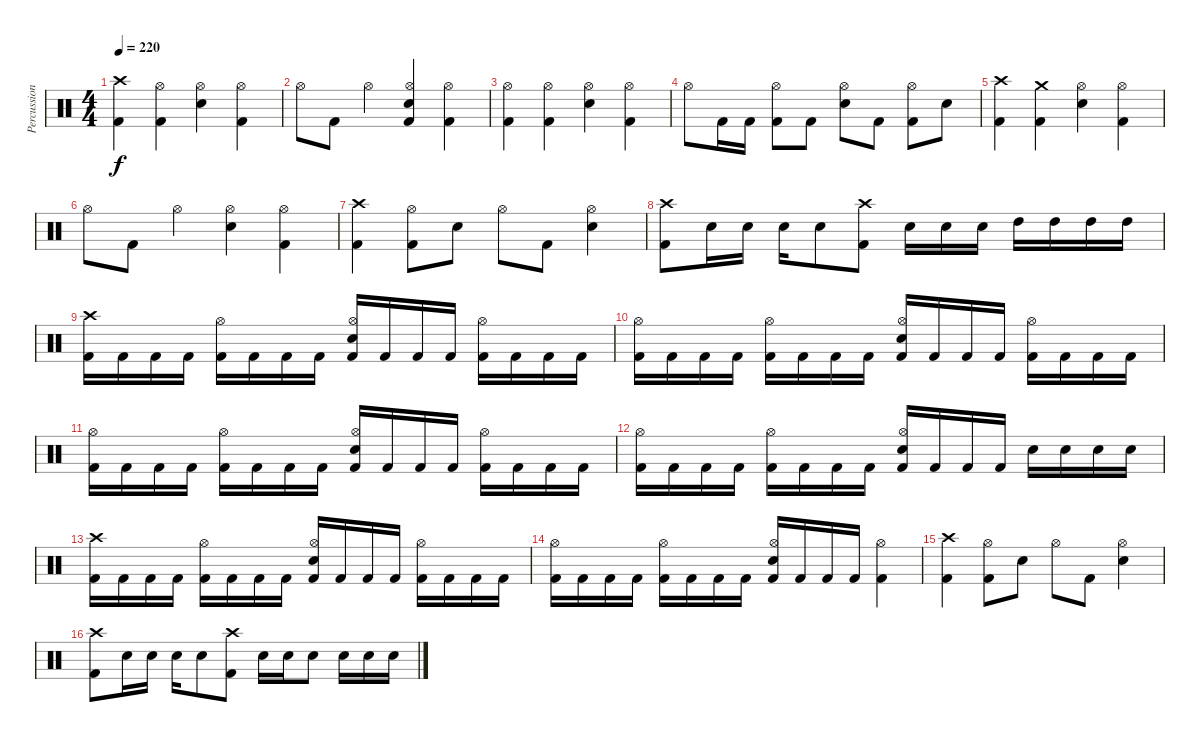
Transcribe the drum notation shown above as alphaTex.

\track ("Percussion (Dan Wilding)" "Percussion") {instrument percussion}
\staff {score}
\articulation defaults
\ts (4 4)
\tempo 220
\clef neutral
\ks c
("Crash high (hit)" "Kick (hit) 2").4{dy f} ("Hi-Hat (open)" "Kick (hit) 2").4 ("Hi-Hat (open)" "Electric Snare (hit)").4 ("Hi-Hat (open)" "Kick (hit) 2").4 |
"Hi-Hat (open)".8 "Kick (hit) 2".8 "Hi-Hat (open)".4 ("Hi-Hat (open)" "Electric Snare (hit)" "Kick (hit) 2").4 ("Hi-Hat (open)" "Kick (hit) 2").4 |
("Hi-Hat (open)" "Kick (hit) 2").4 ("Hi-Hat (open)" "Kick (hit) 2").4 ("Hi-Hat (open)" "Electric Snare (hit)").4 ("Hi-Hat (open)" "Kick (hit) 2").4 |
"Hi-Hat (open)".8 "Kick (hit) 2".16 "Kick (hit) 2".16 ("Hi-Hat (open)" "Kick (hit) 2").8 "Kick (hit) 2".8 ("Hi-Hat (open)" "Electric Snare (hit)").8 "Kick (hit) 2".8 ("Hi-Hat (open)" "Kick (hit) 2").8 "Electric Snare (hit)".8 |
("Crash high (hit)" "Kick (hit) 2").4 ("Crash medium (hit)" "Kick (hit) 2").4 ("Hi-Hat (open)" "Electric Snare (hit)").4 ("Hi-Hat (open)" "Kick (hit) 2").4 |
"Hi-Hat (open)".8 "Kick (hit) 2".8 "Hi-Hat (open)".4 ("Hi-Hat (open)" "Electric Snare (hit)").4 ("Hi-Hat (open)" "Kick (hit) 2").4 |
("Crash high (hit)" "Kick (hit) 2").4 ("Hi-Hat (open)" "Kick (hit) 2").8 "Electric Snare (hit)".8 "Hi-Hat (open)".8 "Kick (hit) 2".8 ("Hi-Hat (open)" "Electric Snare (hit)").4 |
("Crash high (hit)" "Kick (hit) 2").8 "Electric Snare (hit)".16 "Electric Snare (hit)".16 "Electric Snare (hit)".16 "Electric Snare (hit)".8 ("Crash high (hit)" "Kick (hit) 2").8 "Electric Snare (hit)".16 "Electric Snare (hit)".16 "Electric Snare (hit)".16 "High Tom (hit)".16 "High Tom (hit)".16 "High Tom (hit)".16 "High Tom (hit)".16 |
("Crash high (hit)" "Kick (hit) 2").16 "Kick (hit) 2".16 "Kick (hit) 2".16 "Kick (hit) 2".16 ("Hi-Hat (open)" "Kick (hit) 2").16 "Kick (hit) 2".16 "Kick (hit) 2".16 "Kick (hit) 2".16 ("Hi-Hat (open)" "Electric Snare (hit)" "Kick (hit) 2").16 "Kick (hit) 2".16 "Kick (hit) 2".16 "Kick (hit) 2".16 ("Hi-Hat (open)" "Kick (hit) 2").16 "Kick (hit) 2".16 "Kick (hit) 2".16 "Kick (hit) 2".16 |
("Hi-Hat (open)" "Kick (hit) 2").16 "Kick (hit) 2".16 "Kick (hit) 2".16 "Kick (hit) 2".16 ("Hi-Hat (open)" "Kick (hit) 2").16 "Kick (hit) 2".16 "Kick (hit) 2".16 "Kick (hit) 2".16 ("Hi-Hat (open)" "Electric Snare (hit)" "Kick (hit) 2").16 "Kick (hit) 2".16 "Kick (hit) 2".16 "Kick (hit) 2".16 ("Hi-Hat (open)" "Kick (hit) 2").16 "Kick (hit) 2".16 "Kick (hit) 2".16 "Kick (hit) 2".16 |
("Hi-Hat (open)" "Kick (hit) 2").16 "Kick (hit) 2".16 "Kick (hit) 2".16 "Kick (hit) 2".16 ("Hi-Hat (open)" "Kick (hit) 2").16 "Kick (hit) 2".16 "Kick (hit) 2".16 "Kick (hit) 2".16 ("Hi-Hat (open)" "Electric Snare (hit)" "Kick (hit) 2").16 "Kick (hit) 2".16 "Kick (hit) 2".16 "Kick (hit) 2".16 ("Hi-Hat (open)" "Kick (hit) 2").16 "Kick (hit) 2".16 "Kick (hit) 2".16 "Kick (hit) 2".16 |
("Hi-Hat (open)" "Kick (hit) 2").16 "Kick (hit) 2".16 "Kick (hit) 2".16 "Kick (hit) 2".16 ("Hi-Hat (open)" "Kick (hit) 2").16 "Kick (hit) 2".16 "Kick (hit) 2".16 "Kick (hit) 2".16 ("Hi-Hat (open)" "Electric Snare (hit)" "Kick (hit) 2").16 "Kick (hit) 2".16 "Kick (hit) 2".16 "Kick (hit) 2".16 "Electric Snare (hit)".16 "Electric Snare (hit)".16 "Electric Snare (hit)".16 "Electric Snare (hit)".16 |
("Crash high (hit)" "Kick (hit) 2").16 "Kick (hit) 2".16 "Kick (hit) 2".16 "Kick (hit) 2".16 ("Hi-Hat (open)" "Kick (hit) 2").16 "Kick (hit) 2".16 "Kick (hit) 2".16 "Kick (hit) 2".16 ("Hi-Hat (open)" "Electric Snare (hit)" "Kick (hit) 2").16 "Kick (hit) 2".16 "Kick (hit) 2".16 "Kick (hit) 2".16 ("Hi-Hat (open)" "Kick (hit) 2").16 "Kick (hit) 2".16 "Kick (hit) 2".16 "Kick (hit) 2".16 |
("Hi-Hat (open)" "Kick (hit) 2").16 "Kick (hit) 2".16 "Kick (hit) 2".16 "Kick (hit) 2".16 ("Hi-Hat (open)" "Kick (hit) 2").16 "Kick (hit) 2".16 "Kick (hit) 2".16 "Kick (hit) 2".16 ("Hi-Hat (open)" "Electric Snare (hit)" "Kick (hit) 2").16 "Kick (hit) 2".16 "Kick (hit) 2".16 "Kick (hit) 2".16 ("Hi-Hat (open)" "Kick (hit) 2").4 |
("Crash high (hit)" "Kick (hit) 2").4 ("Hi-Hat (open)" "Kick (hit) 2").8 "Electric Snare (hit)".8 "Hi-Hat (open)".8 "Kick (hit) 2".8 ("Hi-Hat (open)" "Electric Snare (hit)").4 |
("Crash high (hit)" "Kick (hit) 2").8 "Electric Snare (hit)".16 "Electric Snare (hit)".16 "Electric Snare (hit)".16 "Electric Snare (hit)".8 ("Crash high (hit)" "Kick (hit) 2").8 "Electric Snare (hit)".16 "Electric Snare (hit)".16 "Electric Snare (hit)".8 "Electric Snare (hit)".16 "Electric Snare (hit)".16 "Electric Snare (hit)".16
